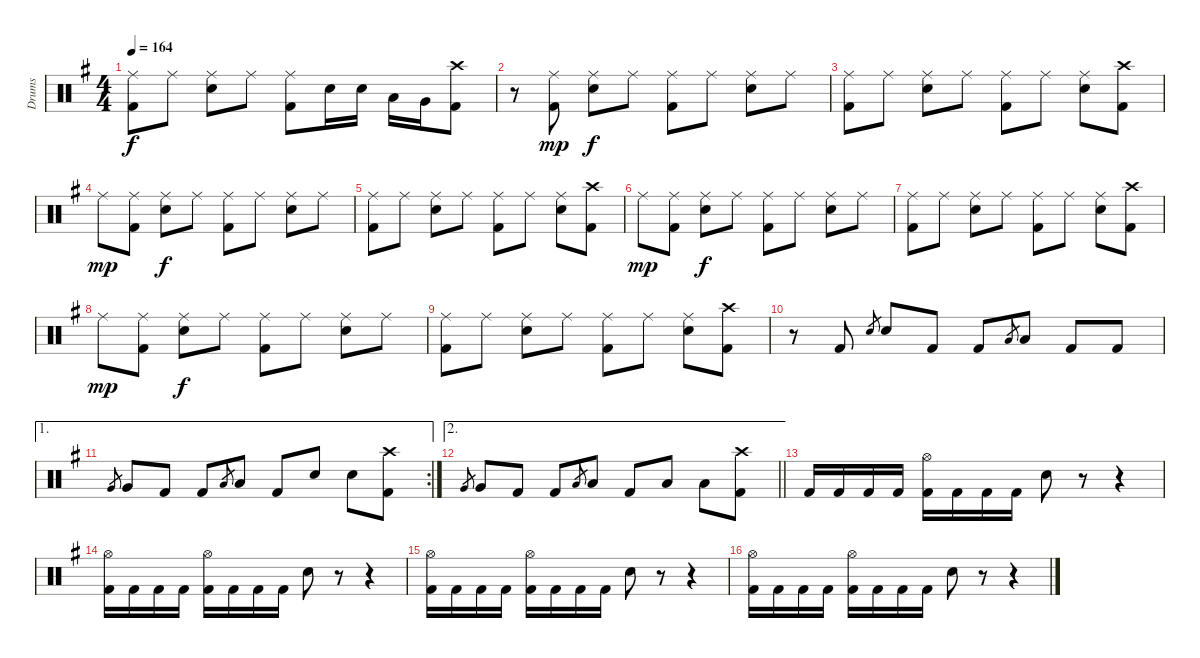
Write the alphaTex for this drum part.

\track ("Drums" "Drums") {instrument percussion}
\staff
\articulation defaults
\ts (4 4)
\tempo 164
\clef neutral
\ks g
("Ride (middle)" "Kick (hit) 2").8{dy f} "Ride (middle)".8 ("Ride (middle)" "Snare (hit) 2").8 "Ride (middle)".8 ("Ride (middle)" "Kick (hit) 2").8 "Snare (hit) 2".16 "Snare (hit) 2".16 "Low Tom (hit)".16 "Very Low Tom (hit)".16 ("Crash high (hit)" "Kick (hit) 2").8 |
r.8 ("Ride (middle)" "Kick (hit) 2").8{dy mp} ("Ride (middle)" "Snare (hit) 2").8{dy f} "Ride (middle)".8 ("Ride (middle)" "Kick (hit) 2").8 "Ride (middle)".8 ("Ride (middle)" "Snare (hit) 2").8 "Ride (middle)".8 |
("Ride (middle)" "Kick (hit) 2").8 "Ride (middle)".8 ("Ride (middle)" "Snare (hit) 2").8 "Ride (middle)".8 ("Ride (middle)" "Kick (hit) 2").8 "Ride (middle)".8 ("Ride (middle)" "Snare (hit) 2").8 ("Crash high (hit)" "Kick (hit) 2").8 |
"Ride (middle)".8{dy mp} ("Ride (middle)" "Kick (hit) 2").8 ("Ride (middle)" "Snare (hit) 2").8{dy f} "Ride (middle)".8 ("Ride (middle)" "Kick (hit) 2").8 "Ride (middle)".8 ("Ride (middle)" "Snare (hit) 2").8 "Ride (middle)".8 |
("Ride (middle)" "Kick (hit) 2").8 "Ride (middle)".8 ("Ride (middle)" "Snare (hit) 2").8 "Ride (middle)".8 ("Ride (middle)" "Kick (hit) 2").8 "Ride (middle)".8 ("Ride (middle)" "Snare (hit) 2").8 ("Crash high (hit)" "Kick (hit) 2").8 |
"Ride (middle)".8{dy mp} ("Ride (middle)" "Kick (hit) 2").8 ("Ride (middle)" "Snare (hit) 2").8{dy f} "Ride (middle)".8 ("Ride (middle)" "Kick (hit) 2").8 "Ride (middle)".8 ("Ride (middle)" "Snare (hit) 2").8 "Ride (middle)".8 |
("Ride (middle)" "Kick (hit) 2").8 "Ride (middle)".8 ("Ride (middle)" "Snare (hit) 2").8 "Ride (middle)".8 ("Ride (middle)" "Kick (hit) 2").8 "Ride (middle)".8 ("Ride (middle)" "Snare (hit) 2").8 ("Crash high (hit)" "Kick (hit) 2").8 |
"Ride (middle)".8{dy mp} ("Ride (middle)" "Kick (hit) 2").8 ("Ride (middle)" "Snare (hit) 2").8{dy f} "Ride (middle)".8 ("Ride (middle)" "Kick (hit) 2").8 "Ride (middle)".8 ("Ride (middle)" "Snare (hit) 2").8 "Ride (middle)".8 |
("Ride (middle)" "Kick (hit) 2").8 "Ride (middle)".8 ("Ride (middle)" "Snare (hit) 2").8 "Ride (middle)".8 ("Ride (middle)" "Kick (hit) 2").8 "Ride (middle)".8 ("Ride (middle)" "Snare (hit) 2").8 ("Crash high (hit)" "Kick (hit) 2").8 |
r.8 "Kick (hit) 2".8 "Snare (hit) 2".8{gr} "Snare (hit) 2".8 "Kick (hit) 2".8 "Kick (hit) 2".8 "Low Tom (hit)".8{gr} "Low Tom (hit)".8 "Kick (hit) 2".8 "Kick (hit) 2".8 |
\ae 1
\rc 2 "Very Low Tom (hit)".8{gr} "Very Low Tom (hit)".8 "Kick (hit) 2".8 "Kick (hit) 2".8 "Low Floor Tom (hit)".8{gr} "Low Floor Tom (hit)".8 "Kick (hit) 2".8 "Snare (hit) 2".8 "Snare (hit) 2".8
("Crash high (hit)" "Kick (hit) 2").8 |
\ae 2
\barLineRight lightlight "Very Low Tom (hit)".8{gr} "Very Low Tom (hit)".8 "Kick (hit) 2".8 "Kick (hit) 2".8 "Low Floor Tom (hit)".8{gr} "Low Floor Tom (hit)".8 "Kick (hit) 2".8 "Low Floor Tom (hit)".8 "Low Floor Tom (hit)".8
("Crash high (hit)" "Kick (hit) 2").8 |
"Kick (hit) 2".16 "Kick (hit) 2".16 "Kick (hit) 2".16 "Kick (hit) 2".16 ("Hi-Hat (open)" "Kick (hit) 2").16 "Kick (hit) 2".16 "Kick (hit) 2".16 "Kick (hit) 2".16 "Snare (hit) 2".8 r.8 r.4 |
("Hi-Hat (open)" "Kick (hit) 2").16 "Kick (hit) 2".16 "Kick (hit) 2".16 "Kick (hit) 2".16 ("Hi-Hat (open)" "Kick (hit) 2").16 "Kick (hit) 2".16 "Kick (hit) 2".16 "Kick (hit) 2".16 "Snare (hit) 2".8 r.8 r.4 |
("Hi-Hat (open)" "Kick (hit) 2").16 "Kick (hit) 2".16 "Kick (hit) 2".16 "Kick (hit) 2".16 ("Hi-Hat (open)" "Kick (hit) 2").16 "Kick (hit) 2".16 "Kick (hit) 2".16 "Kick (hit) 2".16 "Snare (hit) 2".8 r.8 r.4 |
("Hi-Hat (open)" "Kick (hit) 2").16 "Kick (hit) 2".16 "Kick (hit) 2".16 "Kick (hit) 2".16 ("Hi-Hat (open)" "Kick (hit) 2").16 "Kick (hit) 2".16 "Kick (hit) 2".16 "Kick (hit) 2".16 "Snare (hit) 2".8 r.8 r.4
